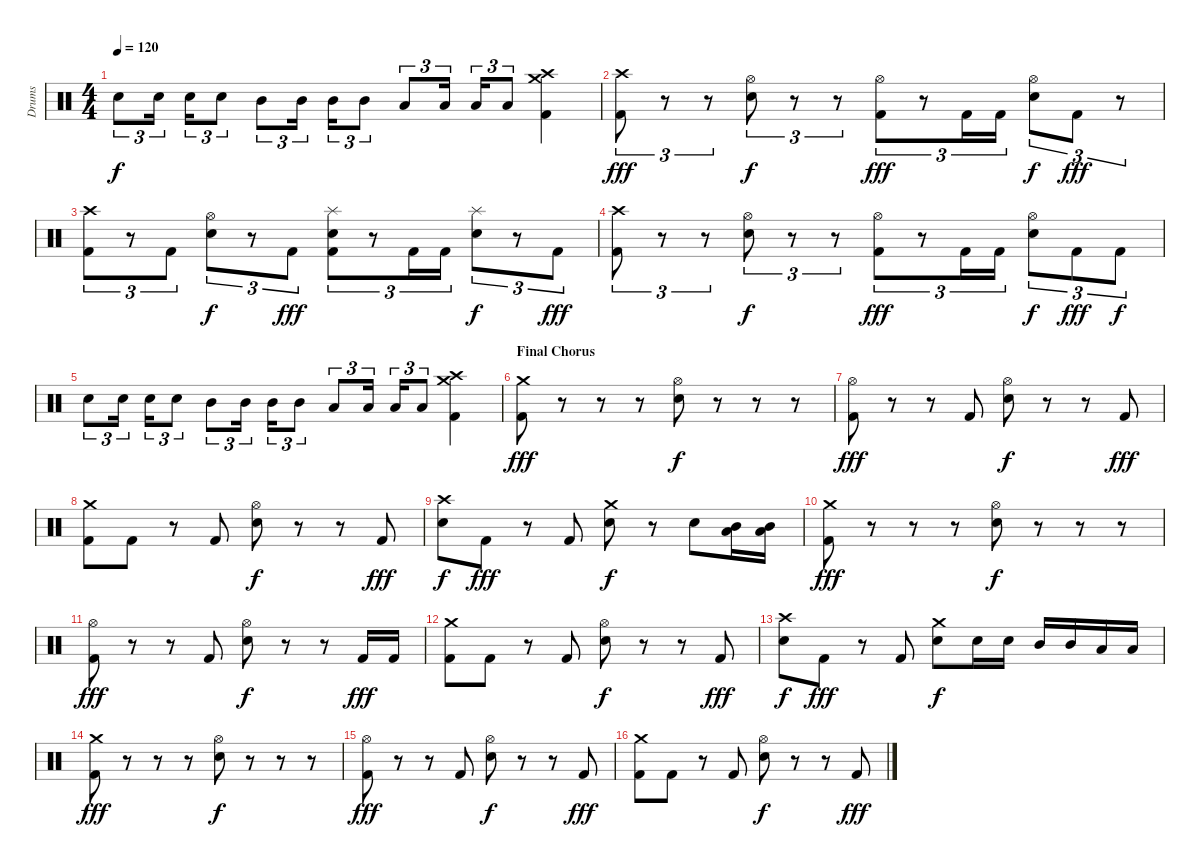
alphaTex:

\track ("Drums" "Drums") {instrument percussion}
\staff {score}
\articulation defaults
\ts (4 4)
\tempo 120
\clef neutral
\ks c "Snare (hit) 2".8{tu (3 2) dy f} "Snare (hit) 2".16{tu (3 2)} "Snare (hit) 2".16{tu (3 2)} "Snare (hit) 2".8{tu (3 2)} "Mid Tom (hit)".8{tu (3 2)} "Mid Tom (hit)".16{tu (3 2)} "Mid Tom (hit)".16{tu (3 2)} "Mid Tom (hit)".8{tu (3 2)} "Low Tom (hit)".8{tu (3 2)} "Low Tom (hit)".16{tu (3 2)} "Low Tom (hit)".16{tu (3 2)} "Low Tom (hit)".8{tu (3 2)}
("Crash medium (hit)" "Crash high (hit)" "Kick (hit) 2").4 |
("Crash high (hit)" "Kick (hit) 2").8{tu (3 2) dy fff} r.8{tu (3 2)} r.8{tu (3 2)} ("Hi-Hat (open)" "Snare (hit) 2").8{tu (3 2) dy f} r.8{tu (3 2)} r.8{tu (3 2)} ("Hi-Hat (open)" "Kick (hit) 2").8{tu (3 2) dy fff} r.8{tu (3 2)} "Kick (hit) 2".16{tu (3 2)} "Kick (hit) 2".16{tu (3 2)} ("Hi-Hat (open)" "Snare (hit) 2").8{tu (3 2) dy f} "Kick (hit) 2".8{tu (3 2) dy fff} r.8{tu (3 2)} |
("Crash high (hit)" "Kick (hit) 2").8{tu (3 2)} r.8{tu (3 2)} "Kick (hit) 2".8{tu (3 2)} ("Hi-Hat (open)" "Snare (hit) 2").8{tu (3 2) dy f} r.8{tu (3 2)} "Kick (hit) 2".8{tu (3 2) dy fff} ("Splash (hit)" "Snare (hit) 2" "Kick (hit) 2").8{tu (3 2)} r.8{tu (3 2)} "Kick (hit) 2".16{tu (3 2)} "Kick (hit) 2".16{tu (3 2)} ("Splash (hit)" "Snare (hit) 2").8{tu (3 2) dy f} r.8{tu (3 2)} "Kick (hit) 2".8{tu (3 2) dy fff} |
("Crash high (hit)" "Kick (hit) 2").8{tu (3 2)} r.8{tu (3 2)} r.8{tu (3 2)} ("Hi-Hat (open)" "Snare (hit) 2").8{tu (3 2) dy f} r.8{tu (3 2)} r.8{tu (3 2)} ("Hi-Hat (open)" "Kick (hit) 2").8{tu (3 2) dy fff} r.8{tu (3 2)} "Kick (hit) 2".16{tu (3 2)} "Kick (hit) 2".16{tu (3 2)} ("Hi-Hat (open)" "Snare (hit) 2").8{tu (3 2) dy f} "Kick (hit) 2".8{tu (3 2) dy fff} "Kick (hit) 2".8{tu (3 2) dy f} |
"Snare (hit) 2".8{tu (3 2)} "Snare (hit) 2".16{tu (3 2)} "Snare (hit) 2".16{tu (3 2)} "Snare (hit) 2".8{tu (3 2)} "Mid Tom (hit)".8{tu (3 2)} "Mid Tom (hit)".16{tu (3 2)} "Mid Tom (hit)".16{tu (3 2)} "Mid Tom (hit)".8{tu (3 2)} "Low Tom (hit)".8{tu (3 2)} "Low Tom (hit)".16{tu (3 2)} "Low Tom (hit)".16{tu (3 2)} "Low Tom (hit)".8{tu (3 2)} ("Crash medium (hit)" "Crash high (hit)" "Kick (hit) 2").4 |
\section ("" "Final Chorus")
("Crash medium (hit)" "Kick (hit) 2").8{dy fff} r.8 r.8 r.8 ("Hi-Hat (open)" "Snare (hit) 2").8{dy f} r.8 r.8 r.8 |
("Hi-Hat (open)" "Kick (hit) 2").8{dy fff} r.8 r.8 "Kick (hit) 2".8 ("Hi-Hat (open)" "Snare (hit) 2").8{dy f} r.8 r.8 "Kick (hit) 2".8{dy fff} |
("Crash medium (hit)" "Kick (hit) 2").8 "Kick (hit) 2".8 r.8 "Kick (hit) 2".8 ("Hi-Hat (open)" "Snare (hit) 2").8{dy f} r.8 r.8 "Kick (hit) 2".8{dy fff} |
("Crash high (hit)" "Snare (hit) 2").8{dy f} "Kick (hit) 2".8{dy fff} r.8 "Kick (hit) 2".8 ("Crash medium (hit)" "Snare (hit) 2").8{dy f} r.8 "Snare (hit) 2".8 ("Mid Tom (hit)" "Low Tom (hit)").16 ("Mid Tom (hit)" "Low Tom (hit)").16 |
("Crash medium (hit)" "Kick (hit) 2").8{dy fff} r.8 r.8 r.8 ("Hi-Hat (open)" "Snare (hit) 2").8{dy f} r.8 r.8 r.8 |
("Hi-Hat (open)" "Kick (hit) 2").8{dy fff} r.8 r.8 "Kick (hit) 2".8 ("Hi-Hat (open)" "Snare (hit) 2").8{dy f} r.8 r.8 "Kick (hit) 2".16{dy fff} "Kick (hit) 2".16 |
("Crash medium (hit)" "Kick (hit) 2").8 "Kick (hit) 2".8 r.8 "Kick (hit) 2".8 ("Hi-Hat (open)" "Snare (hit) 2").8{dy f} r.8 r.8 "Kick (hit) 2".8{dy fff} |
("Crash high (hit)" "Snare (hit) 2").8{dy f} "Kick (hit) 2".8{dy fff} r.8 "Kick (hit) 2".8 ("Crash medium (hit)" "Snare (hit) 2").8{dy f} "Snare (hit) 2".16 "Snare (hit) 2".16 "Mid Tom (hit)".16 "Mid Tom (hit)".16 "Low Tom (hit)".16 "Low Tom (hit)".16 |
("Crash medium (hit)" "Kick (hit) 2").8{dy fff} r.8 r.8 r.8 ("Hi-Hat (open)" "Snare (hit) 2").8{dy f} r.8 r.8 r.8 |
("Hi-Hat (open)" "Kick (hit) 2").8{dy fff} r.8 r.8 "Kick (hit) 2".8 ("Hi-Hat (open)" "Snare (hit) 2").8{dy f} r.8 r.8 "Kick (hit) 2".8{dy fff} |
("Crash medium (hit)" "Kick (hit) 2").8 "Kick (hit) 2".8 r.8 "Kick (hit) 2".8 ("Hi-Hat (open)" "Snare (hit) 2").8{dy f} r.8 r.8 "Kick (hit) 2".8{dy fff}
